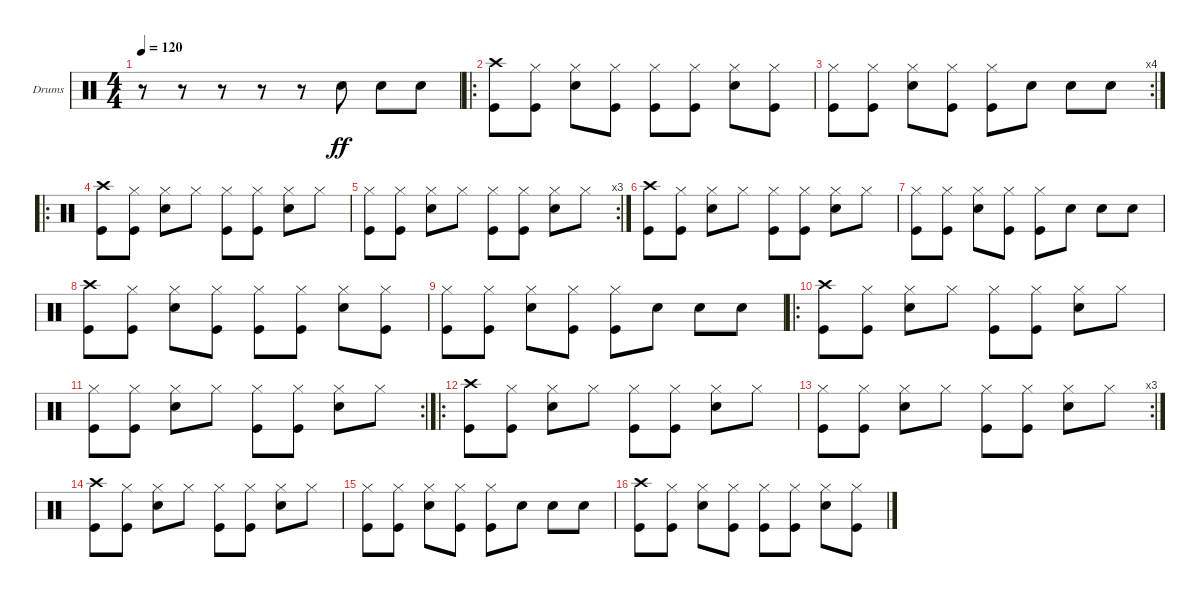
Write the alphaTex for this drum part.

\defaultSystemsLayout 4
\bracketExtendMode groupsimilarinstruments
\firstSystemTrackNameOrientation horizontal
\otherSystemsTrackNameOrientation horizontal
\track ("Drumkit" "Drums") {instrument percussion}
\staff {score}
\articulation defaults
\ts (4 4)
\tempo 120
\clef neutral
\ks c
r.8{dy ff} r.8 r.8 r.8 r.8 "Snare (hit) 2".8 "Snare (hit) 2".8 "Snare (hit) 2".8 |
\ro
("Kick (hit)" "Crash high (hit)").8 ("Kick (hit)" "Hi-Hat (closed)").8 ("Snare (hit) 2" "Hi-Hat (closed)").8 ("Kick (hit)" "Hi-Hat (closed)").8 ("Kick (hit)" "Hi-Hat (closed)").8 ("Kick (hit)" "Hi-Hat (closed)").8 ("Snare (hit) 2" "Hi-Hat (closed)").8 ("Kick (hit)" "Hi-Hat (closed)").8 |
\rc 4
("Kick (hit)" "Hi-Hat (closed)").8 ("Kick (hit)" "Hi-Hat (closed)").8 ("Snare (hit) 2" "Hi-Hat (closed)").8 ("Kick (hit)" "Hi-Hat (closed)").8 ("Kick (hit)" "Hi-Hat (closed)").8 "Snare (hit) 2".8 "Snare (hit) 2".8 "Snare (hit) 2".8 |
\ro
("Kick (hit)" "Crash high (hit)").8 ("Hi-Hat (closed)" "Kick (hit)").8 ("Hi-Hat (closed)" "Snare (hit) 2").8 "Hi-Hat (closed)".8 ("Hi-Hat (closed)" "Kick (hit)").8 ("Hi-Hat (closed)" "Kick (hit)").8 ("Hi-Hat (closed)" "Snare (hit) 2").8 "Hi-Hat (closed)".8 |
\rc 3
("Hi-Hat (closed)" "Kick (hit)").8 ("Hi-Hat (closed)" "Kick (hit)").8 ("Hi-Hat (closed)" "Snare (hit) 2").8 "Hi-Hat (closed)".8 ("Hi-Hat (closed)" "Kick (hit)").8 ("Hi-Hat (closed)" "Kick (hit)").8 ("Hi-Hat (closed)" "Snare (hit) 2").8 "Hi-Hat (closed)".8 |
("Kick (hit)" "Crash high (hit)").8 ("Hi-Hat (closed)" "Kick (hit)").8 ("Hi-Hat (closed)" "Snare (hit) 2").8 "Hi-Hat (closed)".8 ("Hi-Hat (closed)" "Kick (hit)").8 ("Hi-Hat (closed)" "Kick (hit)").8 ("Hi-Hat (closed)" "Snare (hit) 2").8 "Hi-Hat (closed)".8 |
("Kick (hit)" "Hi-Hat (closed)").8 ("Kick (hit)" "Hi-Hat (closed)").8 ("Snare (hit) 2" "Hi-Hat (closed)").8 ("Kick (hit)" "Hi-Hat (closed)").8 ("Kick (hit)" "Hi-Hat (closed)").8 "Snare (hit) 2".8 "Snare (hit) 2".8 "Snare (hit) 2".8 |
("Kick (hit)" "Crash high (hit)").8 ("Kick (hit)" "Hi-Hat (closed)").8 ("Snare (hit) 2" "Hi-Hat (closed)").8 ("Kick (hit)" "Hi-Hat (closed)").8 ("Kick (hit)" "Hi-Hat (closed)").8 ("Kick (hit)" "Hi-Hat (closed)").8 ("Snare (hit) 2" "Hi-Hat (closed)").8 ("Kick (hit)" "Hi-Hat (closed)").8 |
("Kick (hit)" "Hi-Hat (closed)").8 ("Kick (hit)" "Hi-Hat (closed)").8 ("Snare (hit) 2" "Hi-Hat (closed)").8 ("Kick (hit)" "Hi-Hat (closed)").8 ("Kick (hit)" "Hi-Hat (closed)").8 "Snare (hit) 2".8 "Snare (hit) 2".8 "Snare (hit) 2".8 |
\ro
("Kick (hit)" "Crash high (hit)").8 ("Hi-Hat (closed)" "Kick (hit)").8 ("Hi-Hat (closed)" "Snare (hit) 2").8 "Hi-Hat (closed)".8 ("Hi-Hat (closed)" "Kick (hit)").8 ("Hi-Hat (closed)" "Kick (hit)").8 ("Hi-Hat (closed)" "Snare (hit) 2").8 "Hi-Hat (closed)".8 |
\rc 2
("Hi-Hat (closed)" "Kick (hit)").8 ("Hi-Hat (closed)" "Kick (hit)").8 ("Hi-Hat (closed)" "Snare (hit) 2").8 "Hi-Hat (closed)".8 ("Hi-Hat (closed)" "Kick (hit)").8 ("Hi-Hat (closed)" "Kick (hit)").8 ("Hi-Hat (closed)" "Snare (hit) 2").8 "Hi-Hat (closed)".8 |
\ro
("Kick (hit)" "Crash high (hit)").8 ("Hi-Hat (closed)" "Kick (hit)").8 ("Hi-Hat (closed)" "Snare (hit) 2").8 "Hi-Hat (closed)".8 ("Hi-Hat (closed)" "Kick (hit)").8 ("Hi-Hat (closed)" "Kick (hit)").8 ("Hi-Hat (closed)" "Snare (hit) 2").8 "Hi-Hat (closed)".8 |
\rc 3
("Hi-Hat (closed)" "Kick (hit)").8 ("Hi-Hat (closed)" "Kick (hit)").8 ("Hi-Hat (closed)" "Snare (hit) 2").8 "Hi-Hat (closed)".8 ("Hi-Hat (closed)" "Kick (hit)").8 ("Hi-Hat (closed)" "Kick (hit)").8 ("Hi-Hat (closed)" "Snare (hit) 2").8 "Hi-Hat (closed)".8 |
("Kick (hit)" "Crash high (hit)").8 ("Hi-Hat (closed)" "Kick (hit)").8 ("Hi-Hat (closed)" "Snare (hit) 2").8 "Hi-Hat (closed)".8 ("Hi-Hat (closed)" "Kick (hit)").8 ("Hi-Hat (closed)" "Kick (hit)").8 ("Hi-Hat (closed)" "Snare (hit) 2").8 "Hi-Hat (closed)".8 |
("Kick (hit)" "Hi-Hat (closed)").8 ("Kick (hit)" "Hi-Hat (closed)").8 ("Snare (hit) 2" "Hi-Hat (closed)").8 ("Kick (hit)" "Hi-Hat (closed)").8 ("Kick (hit)" "Hi-Hat (closed)").8 "Snare (hit) 2".8 "Snare (hit) 2".8 "Snare (hit) 2".8 |
("Kick (hit)" "Crash high (hit)").8 ("Kick (hit)" "Hi-Hat (closed)").8 ("Snare (hit) 2" "Hi-Hat (closed)").8 ("Kick (hit)" "Hi-Hat (closed)").8 ("Kick (hit)" "Hi-Hat (closed)").8 ("Kick (hit)" "Hi-Hat (closed)").8 ("Snare (hit) 2" "Hi-Hat (closed)").8 ("Kick (hit)" "Hi-Hat (closed)").8
